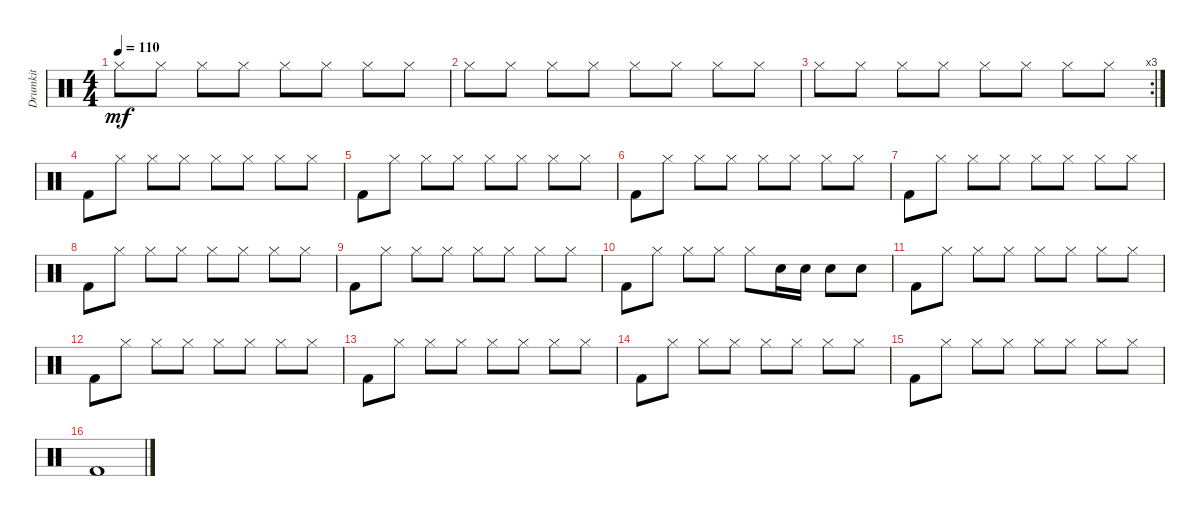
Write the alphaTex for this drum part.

\track ("Drumkit" "Drumkit") {instrument percussion}
\staff {score}
\articulation defaults
\ts (4 4)
\tempo 110
\clef neutral
\ks c "Hi-Hat (closed)".8{dy mf} "Hi-Hat (closed)".8 "Hi-Hat (closed)".8 "Hi-Hat (closed)".8 "Hi-Hat (closed)".8 "Hi-Hat (closed)".8 "Hi-Hat (closed)".8 "Hi-Hat (closed)".8
|
"Hi-Hat (closed)".8 "Hi-Hat (closed)".8 "Hi-Hat (closed)".8 "Hi-Hat (closed)".8 "Hi-Hat (closed)".8 "Hi-Hat (closed)".8 "Hi-Hat (closed)".8 "Hi-Hat (closed)".8 |
\rc 3 "Hi-Hat (closed)".8 "Hi-Hat (closed)".8 "Hi-Hat (closed)".8 "Hi-Hat (closed)".8 "Hi-Hat (closed)".8 "Hi-Hat (closed)".8 "Hi-Hat (closed)".8 "Hi-Hat (closed)".8
|
"Kick (hit) 2".8 "Hi-Hat (closed)".8 "Hi-Hat (closed)".8 "Hi-Hat (closed)".8 "Hi-Hat (closed)".8 "Hi-Hat (closed)".8 "Hi-Hat (closed)".8 "Hi-Hat (closed)".8 |
"Kick (hit) 2".8 "Hi-Hat (closed)".8 "Hi-Hat (closed)".8 "Hi-Hat (closed)".8 "Hi-Hat (closed)".8 "Hi-Hat (closed)".8 "Hi-Hat (closed)".8 "Hi-Hat (closed)".8 |
"Kick (hit) 2".8 "Hi-Hat (closed)".8 "Hi-Hat (closed)".8 "Hi-Hat (closed)".8 "Hi-Hat (closed)".8 "Hi-Hat (closed)".8 "Hi-Hat (closed)".8 "Hi-Hat (closed)".8 |
"Kick (hit) 2".8 "Hi-Hat (closed)".8 "Hi-Hat (closed)".8 "Hi-Hat (closed)".8 "Hi-Hat (closed)".8 "Hi-Hat (closed)".8 "Hi-Hat (closed)".8 "Hi-Hat (closed)".8 |
"Kick (hit) 2".8 "Hi-Hat (closed)".8 "Hi-Hat (closed)".8 "Hi-Hat (closed)".8 "Hi-Hat (closed)".8 "Hi-Hat (closed)".8 "Hi-Hat (closed)".8 "Hi-Hat (closed)".8 |
"Kick (hit) 2".8 "Hi-Hat (closed)".8 "Hi-Hat (closed)".8 "Hi-Hat (closed)".8 "Hi-Hat (closed)".8 "Hi-Hat (closed)".8 "Hi-Hat (closed)".8 "Hi-Hat (closed)".8 |
"Kick (hit) 2".8 "Hi-Hat (closed)".8 "Hi-Hat (closed)".8 "Hi-Hat (closed)".8 "Hi-Hat (closed)".8 "Snare (hit) 2".16 "Snare (hit) 2".16 "Snare (hit) 2".8 "Snare (hit) 2".8 |
"Kick (hit) 2".8 "Hi-Hat (closed)".8 "Hi-Hat (closed)".8 "Hi-Hat (closed)".8 "Hi-Hat (closed)".8 "Hi-Hat (closed)".8 "Hi-Hat (closed)".8 "Hi-Hat (closed)".8 |
"Kick (hit) 2".8 "Hi-Hat (closed)".8 "Hi-Hat (closed)".8 "Hi-Hat (closed)".8 "Hi-Hat (closed)".8 "Hi-Hat (closed)".8 "Hi-Hat (closed)".8 "Hi-Hat (closed)".8 |
"Kick (hit) 2".8 "Hi-Hat (closed)".8 "Hi-Hat (closed)".8 "Hi-Hat (closed)".8 "Hi-Hat (closed)".8 "Hi-Hat (closed)".8 "Hi-Hat (closed)".8 "Hi-Hat (closed)".8 |
"Kick (hit) 2".8 "Hi-Hat (closed)".8 "Hi-Hat (closed)".8 "Hi-Hat (closed)".8 "Hi-Hat (closed)".8 "Hi-Hat (closed)".8 "Hi-Hat (closed)".8 "Hi-Hat (closed)".8 |
"Kick (hit) 2".8 "Hi-Hat (closed)".8 "Hi-Hat (closed)".8 "Hi-Hat (closed)".8 "Hi-Hat (closed)".8 "Hi-Hat (closed)".8 "Hi-Hat (closed)".8 "Hi-Hat (closed)".8 |
"Kick (hit) 2".1
